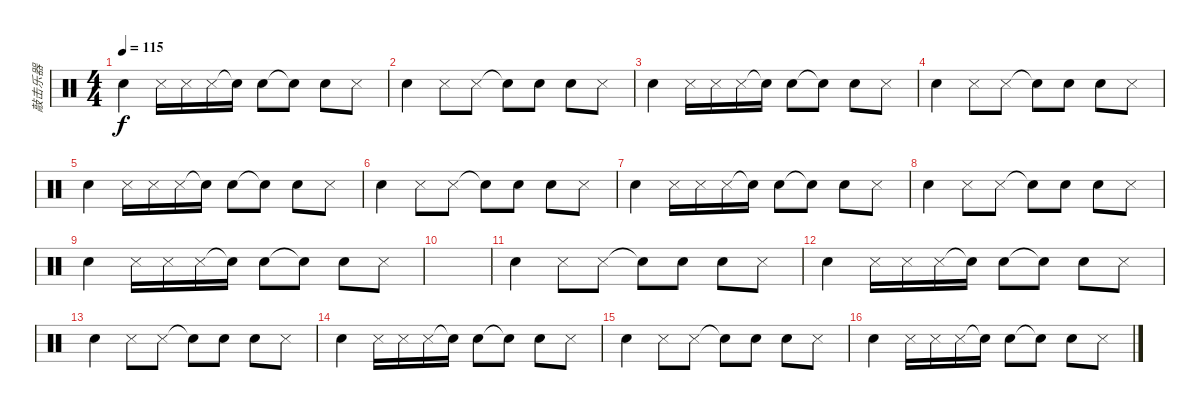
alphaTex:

\track ("敲击乐器" "敲击乐器") {instrument percussion}
\staff {score}
\articulation defaults
\ts (4 4)
\tempo 115
\clef neutral
\ks c "Hand Clap (hit)".4{dy f} "Snare (side stick) 3".16 "Snare (side stick) 3".16 "Snare (side stick) 3".16 "Snare (hit)"{t}.16 "Hand Clap (hit)".8 "Snare (hit)"{t}.8 "Hand Clap (hit)".8 "Snare (side stick) 3".8
|
"Hand Clap (hit)".4 "Snare (side stick) 3".8 "Snare (side stick) 3".8 "Snare (hit)"{t}.8 "Hand Clap (hit)".8 "Hand Clap (hit)".8 "Snare (side stick) 3".8 |
"Hand Clap (hit)".4 "Snare (side stick) 3".16 "Snare (side stick) 3".16 "Snare (side stick) 3".16 "Snare (hit)"{t}.16 "Hand Clap (hit)".8 "Snare (hit)"{t}.8 "Hand Clap (hit)".8 "Snare (side stick) 3".8 |
"Hand Clap (hit)".4 "Snare (side stick) 3".8 "Snare (side stick) 3".8 "Snare (hit)"{t}.8 "Hand Clap (hit)".8 "Hand Clap (hit)".8 "Snare (side stick) 3".8 |
"Hand Clap (hit)".4 "Snare (side stick) 3".16 "Snare (side stick) 3".16 "Snare (side stick) 3".16 "Snare (hit)"{t}.16 "Hand Clap (hit)".8 "Snare (hit)"{t}.8 "Hand Clap (hit)".8 "Snare (side stick) 3".8 |
"Hand Clap (hit)".4 "Snare (side stick) 3".8 "Snare (side stick) 3".8 "Snare (hit)"{t}.8 "Hand Clap (hit)".8 "Hand Clap (hit)".8 "Snare (side stick) 3".8 |
"Hand Clap (hit)".4 "Snare (side stick) 3".16 "Snare (side stick) 3".16 "Snare (side stick) 3".16 "Snare (hit)"{t}.16 "Hand Clap (hit)".8 "Snare (hit)"{t}.8 "Hand Clap (hit)".8 "Snare (side stick) 3".8 |
"Hand Clap (hit)".4 "Snare (side stick) 3".8 "Snare (side stick) 3".8 "Snare (hit)"{t}.8 "Hand Clap (hit)".8 "Hand Clap (hit)".8 "Snare (side stick) 3".8 |
"Hand Clap (hit)".4 "Snare (side stick) 3".16 "Snare (side stick) 3".16 "Snare (side stick) 3".16 "Snare (hit)"{t}.16 "Hand Clap (hit)".8 "Snare (hit)"{t}.8 "Hand Clap (hit)".8 "Snare (side stick) 3".8 |
|
"Hand Clap (hit)".4 "Snare (side stick) 3".8 "Snare (side stick) 3".8 "Snare (hit)"{t}.8 "Hand Clap (hit)".8 "Hand Clap (hit)".8 "Snare (side stick) 3".8 |
"Hand Clap (hit)".4 "Snare (side stick) 3".16 "Snare (side stick) 3".16 "Snare (side stick) 3".16 "Snare (hit)"{t}.16 "Hand Clap (hit)".8 "Snare (hit)"{t}.8 "Hand Clap (hit)".8 "Snare (side stick) 3".8 |
"Hand Clap (hit)".4 "Snare (side stick) 3".8 "Snare (side stick) 3".8 "Snare (hit)"{t}.8 "Hand Clap (hit)".8 "Hand Clap (hit)".8 "Snare (side stick) 3".8 |
"Hand Clap (hit)".4 "Snare (side stick) 3".16 "Snare (side stick) 3".16 "Snare (side stick) 3".16 "Snare (hit)"{t}.16 "Hand Clap (hit)".8 "Snare (hit)"{t}.8 "Hand Clap (hit)".8 "Snare (side stick) 3".8 |
"Hand Clap (hit)".4 "Snare (side stick) 3".8 "Snare (side stick) 3".8 "Snare (hit)"{t}.8 "Hand Clap (hit)".8 "Hand Clap (hit)".8 "Snare (side stick) 3".8 |
"Hand Clap (hit)".4 "Snare (side stick) 3".16 "Snare (side stick) 3".16 "Snare (side stick) 3".16 "Snare (hit)"{t}.16 "Hand Clap (hit)".8 "Snare (hit)"{t}.8 "Hand Clap (hit)".8 "Snare (side stick) 3".8
